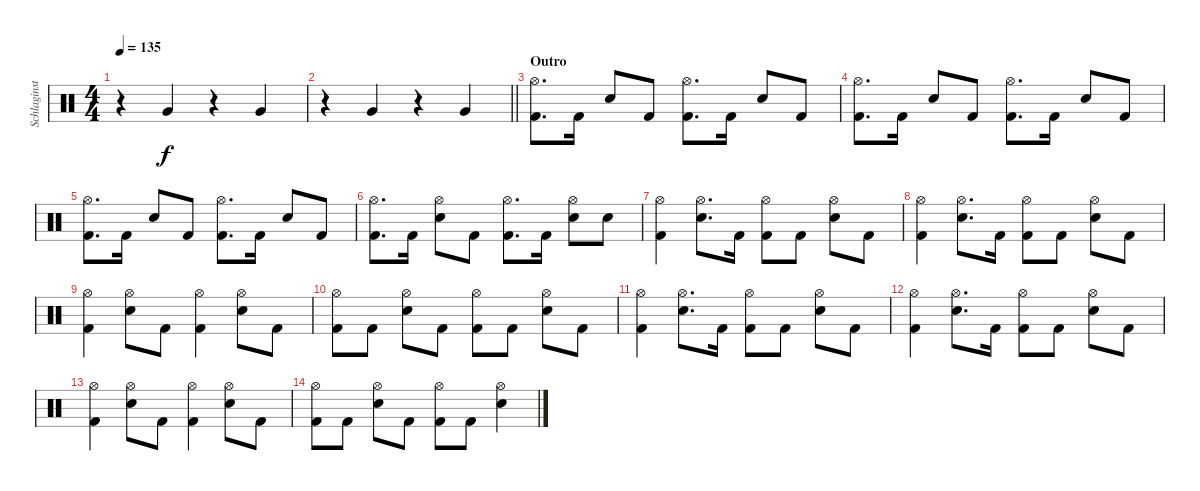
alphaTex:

\track ("Schlaginstrumente - Auswahl" "Schlaginst") {instrument percussion}
\staff {score}
\articulation defaults
\ts (4 4)
\tempo 135
\clef neutral
\ks c
r.4{dy f} "Very Low Tom (hit)".4 r.4 "Very Low Tom (hit)".4 |
\barLineRight lightlight
r.4 "Very Low Tom (hit)".4 r.4 "Very Low Tom (hit)".4 |
\section ("" "Outro")
("Hi-Hat (open)" "Kick (hit) 2").8{d} "Kick (hit) 2".16 "Electric Snare (hit)".8 "Kick (hit) 2".8 ("Hi-Hat (open)" "Kick (hit) 2").8{d} "Kick (hit) 2".16 "Electric Snare (hit)".8 "Kick (hit) 2".8 |
("Hi-Hat (open)" "Kick (hit) 2").8{d} "Kick (hit) 2".16 "Electric Snare (hit)".8 "Kick (hit) 2".8 ("Hi-Hat (open)" "Kick (hit) 2").8{d} "Kick (hit) 2".16 "Electric Snare (hit)".8 "Kick (hit) 2".8 |
("Hi-Hat (open)" "Kick (hit) 2").8{d} "Kick (hit) 2".16 "Electric Snare (hit)".8 "Kick (hit) 2".8 ("Hi-Hat (open)" "Kick (hit) 2").8{d} "Kick (hit) 2".16 "Electric Snare (hit)".8 "Kick (hit) 2".8 |
("Hi-Hat (open)" "Kick (hit) 2").8{d} "Kick (hit) 2".16 ("Hi-Hat (open)" "Electric Snare (hit)").8 "Kick (hit) 2".8 ("Hi-Hat (open)" "Kick (hit) 2").8{d} "Kick (hit) 2".16 ("Hi-Hat (open)" "Electric Snare (hit)").8 "Electric Snare (hit)".8 |
("Hi-Hat (open)" "Kick (hit) 2").4 ("Hi-Hat (open)" "Electric Snare (hit)").8{d} "Kick (hit) 2".16 ("Hi-Hat (open)" "Kick (hit) 2").8 "Kick (hit) 2".8 ("Hi-Hat (open)" "Electric Snare (hit)").8 "Kick (hit) 2".8 |
("Hi-Hat (open)" "Kick (hit) 2").4 ("Hi-Hat (open)" "Electric Snare (hit)").8{d} "Kick (hit) 2".16 ("Hi-Hat (open)" "Kick (hit) 2").8 "Kick (hit) 2".8 ("Hi-Hat (open)" "Electric Snare (hit)").8 "Kick (hit) 2".8 |
("Hi-Hat (open)" "Kick (hit) 2").4 ("Hi-Hat (open)" "Electric Snare (hit)").8 "Kick (hit) 2".8 ("Hi-Hat (open)" "Kick (hit) 2").4 ("Hi-Hat (open)" "Electric Snare (hit)").8 "Kick (hit) 2".8 |
("Hi-Hat (open)" "Kick (hit) 2").8 "Kick (hit) 2".8 ("Hi-Hat (open)" "Electric Snare (hit)").8 "Kick (hit) 2".8 ("Hi-Hat (open)" "Kick (hit) 2").8 "Kick (hit) 2".8 ("Hi-Hat (open)" "Electric Snare (hit)").8 "Kick (hit) 2".8 |
("Hi-Hat (open)" "Kick (hit) 2").4 ("Hi-Hat (open)" "Electric Snare (hit)").8{d} "Kick (hit) 2".16 ("Hi-Hat (open)" "Kick (hit) 2").8 "Kick (hit) 2".8 ("Hi-Hat (open)" "Electric Snare (hit)").8 "Kick (hit) 2".8 |
("Hi-Hat (open)" "Kick (hit) 2").4 ("Hi-Hat (open)" "Electric Snare (hit)").8{d} "Kick (hit) 2".16 ("Hi-Hat (open)" "Kick (hit) 2").8 "Kick (hit) 2".8 ("Hi-Hat (open)" "Electric Snare (hit)").8 "Kick (hit) 2".8 |
("Hi-Hat (open)" "Kick (hit) 2").4 ("Hi-Hat (open)" "Electric Snare (hit)").8 "Kick (hit) 2".8 ("Hi-Hat (open)" "Kick (hit) 2").4 ("Hi-Hat (open)" "Electric Snare (hit)").8 "Kick (hit) 2".8 |
("Hi-Hat (open)" "Kick (hit) 2").8 "Kick (hit) 2".8 ("Hi-Hat (open)" "Electric Snare (hit)").8 "Kick (hit) 2".8 ("Hi-Hat (open)" "Kick (hit) 2").8 "Kick (hit) 2".8 ("Hi-Hat (open)" "Electric Snare (hit)").4
